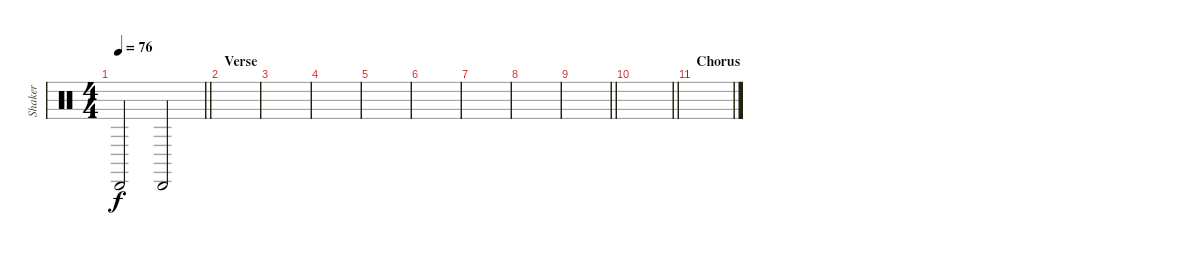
\track ("Shaker" "Shaker") {instrument percussion}
\staff {score}
\articulation defaults
\ts (4 4)
\tempo 76
\clef neutral
\barLineRight lightlight
\ks c "Cabasa (hit)".2{dy f} "Cabasa (hit)".2
|
\section ("" "Verse")
|
|
|
|
|
|
|
\barLineRight lightlight
|
\barLineRight lightlight
|
\section ("" "Chorus")
